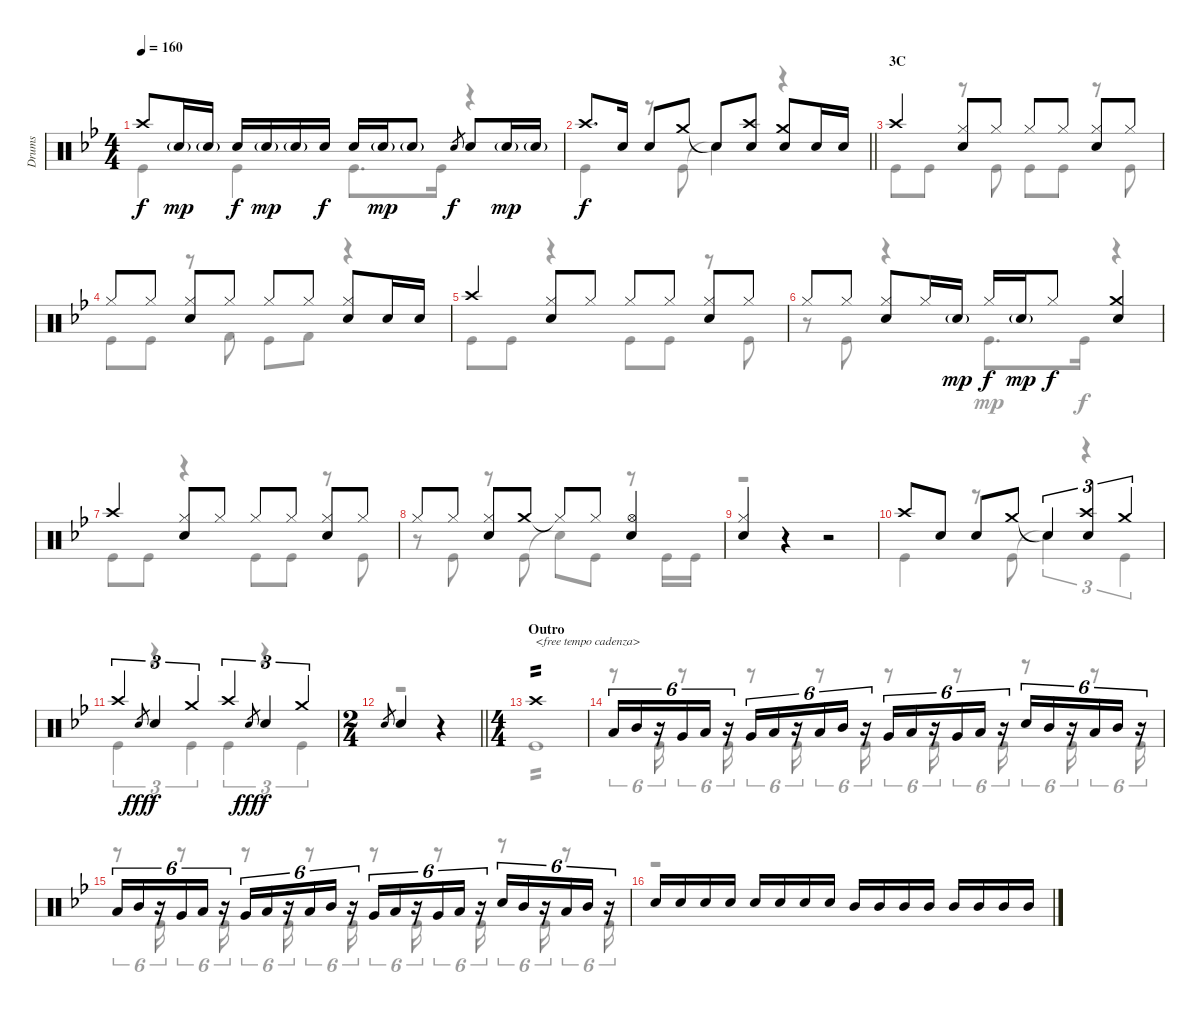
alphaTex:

\track ("Drums" "Drums") {instrument percussion}
\staff {score}
\articulation defaults
\voice
\ts (4 4)
\tempo 160
\clef neutral
\ks bb "Crash high (hit)".8{dy f} "Snare (hit) 2"{g}.16{dy mp} "Snare (hit) 2"{g}.16 "Snare (hit) 2".16{dy f} "Snare (hit) 2"{g}.16{dy mp} "Snare (hit) 2"{g}.16 "Snare (hit) 2".16{dy f} "Snare (hit) 2".16 "Snare (hit) 2"{g}.16{dy mp} "Snare (hit) 2"{g}.8 "Snare (hit) 2".8{gr dy f} "Snare (hit) 2".8 "Snare (hit) 2"{g}.16{dy mp} "Snare (hit) 2"{g}.16
|
\barLineRight lightlight "Crash high (hit)".8{d dy f} "Snare (hit) 2".16 "Snare (hit) 2".8 "Crash medium (hit)".8 "Snare (hit)"{t}.8
("Crash high (hit)" "Snare (hit) 2").8 ("Crash medium (hit)" "Snare (hit) 2").8 "Snare (hit) 2".16 "Snare (hit) 2".16 |
\section ("" "3C")
"Crash high (hit)".4 ("Hi-Hat (closed)" "Snare (hit) 2").8 "Hi-Hat (closed)".8 "Hi-Hat (closed)".8 "Hi-Hat (closed)".8 ("Hi-Hat (closed)" "Snare (hit) 2").8 "Hi-Hat (closed)".8 |
"Hi-Hat (closed)".8 "Hi-Hat (closed)".8 ("Hi-Hat (closed)" "Snare (hit) 2").8 "Hi-Hat (closed)".8 "Hi-Hat (closed)".8 "Hi-Hat (closed)".8 ("Hi-Hat (closed)" "Snare (hit) 2").8 "Snare (hit) 2".16 "Snare (hit) 2".16 |
"Crash high (hit)".4 ("Hi-Hat (closed)" "Snare (hit) 2").8 "Hi-Hat (closed)".8 "Hi-Hat (closed)".8 "Hi-Hat (closed)".8 ("Hi-Hat (closed)" "Snare (hit) 2").8 "Hi-Hat (closed)".8 |
"Hi-Hat (closed)".8 "Hi-Hat (closed)".8 ("Hi-Hat (closed)" "Snare (hit) 2").8 "Hi-Hat (closed)".16 "Snare (hit) 2"{g}.16{dy mp} "Hi-Hat (closed)".16{dy f} "Snare (hit) 2"{g}.16{dy mp} "Hi-Hat (closed)".8{dy f} ("Crash medium (hit)" "Snare (hit) 2").4 |
"Crash high (hit)".4 ("Hi-Hat (closed)" "Snare (hit) 2").8 "Hi-Hat (closed)".8 "Hi-Hat (closed)".8 "Hi-Hat (closed)".8 ("Hi-Hat (closed)" "Snare (hit) 2").8 "Hi-Hat (closed)".8 |
"Hi-Hat (closed)".8 "Hi-Hat (closed)".8 ("Hi-Hat (closed)" "Snare (hit) 2").8 "Crash medium (hit)".8 "Hi-Hat (closed)"{t}.8 "Hi-Hat (closed)".8 ("Hi-Hat (open)" "Snare (hit) 2").4 |
("Hi-Hat (closed)" "Snare (hit) 2").4 r.4 r.2 |
"Crash high (hit)".8 "Snare (hit) 2".8 "Snare (hit) 2".8 "Crash medium (hit)".8 "Snare (hit)"{t}.4{tu (3 2)} ("Crash high (hit)" "Snare (hit) 2").4{tu (3 2)} "Crash medium (hit)".4{tu (3 2)} |
"Crash high (hit)".4{tu (3 2)} "Snare (hit) 2".8{gr dy fff} "Snare (hit) 2".4{tu (3 2) dy f} "Crash medium (hit)".4{tu (3 2)} "Crash high (hit)".4{tu (3 2)} "Snare (hit) 2".8{gr dy fff} "Snare (hit) 2".4{tu (3 2) dy f} "Crash medium (hit)".4{tu (3 2)} |
\ts (2 4)
\barLineRight lightlight "Snare (hit) 2".8{gr} "Snare (hit) 2".4
r.4 |
\ts (4 4)
\section ("" "Outro")
"Crash high (hit)".1{txt "<free tempo cadenza>" tp 2} |
"Low Tom (hit)".16{tu (6 4)} "Mid Tom (hit)".16{tu (6 4)} r.16{tu (6 4)} "Very Low Tom (hit)".16{tu (6 4)} "Low Tom (hit)".16{tu (6 4)} r.16{tu (6 4)} "Very Low Tom (hit)".16{tu (6 4)} "Low Tom (hit)".16{tu (6 4)} r.16{tu (6 4)} "Low Tom (hit)".16{tu (6 4)} "Mid Tom (hit)".16{tu (6 4)} r.16{tu (6 4)} "Very Low Tom (hit)".16{tu (6 4)} "Low Tom (hit)".16{tu (6 4)} r.16{tu (6 4)} "Very Low Tom (hit)".16{tu (6 4)} "Low Tom (hit)".16{tu (6 4)} r.16{tu (6 4)} "Snare (hit) 2".16{tu (6 4)} "Mid Tom (hit)".16{tu (6 4)} r.16{tu (6 4)} "Low Tom (hit)".16{tu (6 4)} "Mid Tom (hit)".16{tu (6 4)} r.16{tu (6 4)} |
"Low Tom (hit)".16{tu (6 4)} "Mid Tom (hit)".16{tu (6 4)} r.16{tu (6 4)} "Very Low Tom (hit)".16{tu (6 4)} "Low Tom (hit)".16{tu (6 4)} r.16{tu (6 4)} "Very Low Tom (hit)".16{tu (6 4)} "Low Tom (hit)".16{tu (6 4)} r.16{tu (6 4)} "Low Tom (hit)".16{tu (6 4)} "Mid Tom (hit)".16{tu (6 4)} r.16{tu (6 4)} "Very Low Tom (hit)".16{tu (6 4)} "Low Tom (hit)".16{tu (6 4)} r.16{tu (6 4)} "Very Low Tom (hit)".16{tu (6 4)} "Low Tom (hit)".16{tu (6 4)} r.16{tu (6 4)} "Snare (hit) 2".16{tu (6 4)} "Mid Tom (hit)".16{tu (6 4)} r.16{tu (6 4)} "Low Tom (hit)".16{tu (6 4)} "Mid Tom (hit)".16{tu (6 4)} r.16{tu (6 4)} |
"Snare (hit) 2".16 "Snare (hit) 2".16 "Snare (hit) 2".16 "Snare (hit) 2".16 "Snare (hit) 2".16 "Snare (hit) 2".16 "Snare (hit) 2".16 "Snare (hit) 2".16 "Mid Tom (hit)".16 "Mid Tom (hit)".16 "Mid Tom (hit)".16 "Mid Tom (hit)".16 "Mid Tom (hit)".16 "Mid Tom (hit)".16 "Mid Tom (hit)".16 "Mid Tom (hit)".16
\voice
\clef neutral
\ottava regular
\simile none
\ks bb "Kick (hit)".4{dy f} "Kick (hit)".4 "Kick (hit)".8{d} "Kick (hit)".16
r.4 |
\barLineRight lightlight "Kick (hit)".4
r.8 "Kick (hit)".8 "Snare (hit)"{t}.4 r.4 |
"Kick (hit)".8 "Kick (hit)".8 r.8 "Kick (hit)".8 "Kick (hit)".8 "Kick (hit)".8 r.8 "Kick (hit)".8 |
"Kick (hit)".8 "Kick (hit)".8 r.8 "Kick (hit) 2".8 "Kick (hit)".8 "Kick (hit) 2".8 r.4 |
"Kick (hit)".8 "Kick (hit)".8 r.4 "Kick (hit)".8 "Kick (hit)".8 r.8 "Kick (hit)".8 |
r.8 "Kick (hit)".8 r.4 "Kick (hit)".8{d dy mp} "Kick (hit)".16{dy f} r.4 |
"Kick (hit)".8 "Kick (hit)".8 r.4 "Kick (hit)".8 "Kick (hit)".8 r.8 "Kick (hit)".8 |
r.8 "Kick (hit)".8 r.8 "Kick (hit)".8 "Snare (hit)"{t}.8 "Kick (hit)".8 r.8 "Kick (hit)".16 "Kick (hit)".16 |
r.1 |
"Kick (hit)".4 r.8 "Kick (hit)".8 "Snare (hit)"{t}.4{tu (3 2)} r.4{tu (3 2)} "Kick (hit)".4{tu (3 2)} |
"Kick (hit)".4{tu (3 2)} r.4{tu (3 2)} "Kick (hit)".4{tu (3 2)} "Kick (hit)".4{tu (3 2)} r.4{tu (3 2)} "Kick (hit)".4{tu (3 2)} |
\barLineRight lightlight
r.2 |
"Kick (hit)".1{tp 2} |
r.8{tu (6 4)} "Kick (hit)".16{tu (6 4)} r.8{tu (6 4)} "Kick (hit)".16{tu (6 4)} r.8{tu (6 4)} "Kick (hit)".16{tu (6 4)} r.8{tu (6 4)} "Kick (hit)".16{tu (6 4)} r.8{tu (6 4)} "Kick (hit)".16{tu (6 4)} r.8{tu (6 4)} "Kick (hit)".16{tu (6 4)} r.8{tu (6 4)} "Kick (hit)".16{tu (6 4)} r.8{tu (6 4)} "Kick (hit)".16{tu (6 4)} |
r.8{tu (6 4)} "Kick (hit)".16{tu (6 4)} r.8{tu (6 4)} "Kick (hit)".16{tu (6 4)} r.8{tu (6 4)} "Kick (hit)".16{tu (6 4)} r.8{tu (6 4)} "Kick (hit)".16{tu (6 4)} r.8{tu (6 4)} "Kick (hit)".16{tu (6 4)} r.8{tu (6 4)} "Kick (hit)".16{tu (6 4)} r.8{tu (6 4)} "Kick (hit)".16{tu (6 4)} r.8{tu (6 4)} "Kick (hit)".16{tu (6 4)} |
r.1
